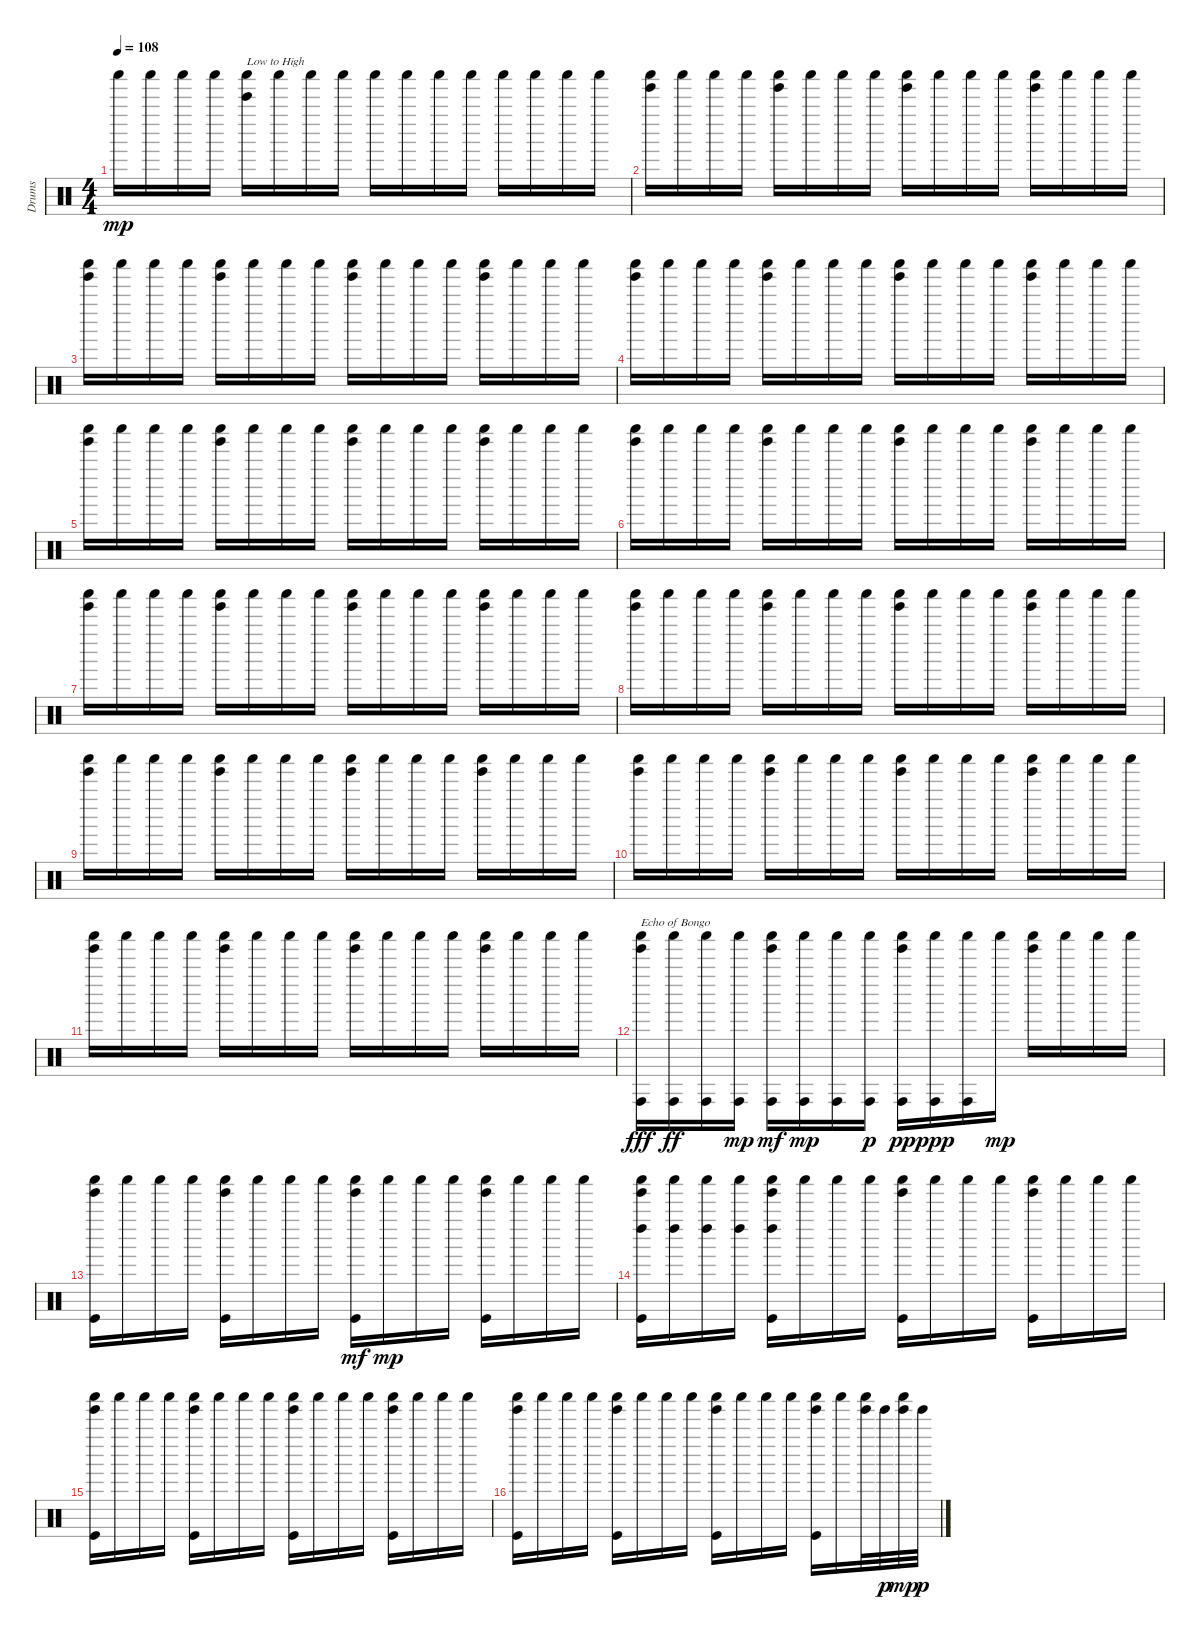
\track ("Drums" "Drums") {instrument percussion}
\staff {score}
\articulation defaults
\ts (4 4)
\tempo 108
\clef neutral
\ks c "Shaker (hit)".16{dy mp volume 1} "Shaker (hit)".16{volume 13} "Shaker (hit)".16 "Shaker (hit)".16
("Bell Tree (hit)" "Shaker (hit)").16{txt "Low to High"} "Shaker (hit)".16 "Shaker (hit)".16 "Shaker (hit)".16 "Shaker (hit)".16 "Shaker (hit)".16 "Shaker (hit)".16 "Shaker (hit)".16 "Shaker (hit)".16 "Shaker (hit)".16 "Shaker (hit)".16 "Shaker (hit)".16 |
("Tinkle Bell (hit)" "Shaker (hit)").16 "Shaker (hit)".16 "Shaker (hit)".16 "Shaker (hit)".16 ("Tinkle Bell (hit)" "Shaker (hit)").16 "Shaker (hit)".16 "Shaker (hit)".16 "Shaker (hit)".16 ("Tinkle Bell (hit)" "Shaker (hit)").16 "Shaker (hit)".16 "Shaker (hit)".16 "Shaker (hit)".16 ("Tinkle Bell (hit)" "Shaker (hit)").16 "Shaker (hit)".16 "Shaker (hit)".16 "Shaker (hit)".16 |
("Tinkle Bell (hit)" "Shaker (hit)").16 "Shaker (hit)".16 "Shaker (hit)".16 "Shaker (hit)".16 ("Tinkle Bell (hit)" "Shaker (hit)").16 "Shaker (hit)".16 "Shaker (hit)".16 "Shaker (hit)".16 ("Tinkle Bell (hit)" "Shaker (hit)").16 "Shaker (hit)".16 "Shaker (hit)".16 "Shaker (hit)".16 ("Tinkle Bell (hit)" "Shaker (hit)").16 "Shaker (hit)".16 "Shaker (hit)".16 "Shaker (hit)".16 |
("Tinkle Bell (hit)" "Shaker (hit)").16 "Shaker (hit)".16 "Shaker (hit)".16 "Shaker (hit)".16 ("Tinkle Bell (hit)" "Shaker (hit)").16 "Shaker (hit)".16 "Shaker (hit)".16 "Shaker (hit)".16 ("Tinkle Bell (hit)" "Shaker (hit)").16 "Shaker (hit)".16 "Shaker (hit)".16 "Shaker (hit)".16 ("Tinkle Bell (hit)" "Shaker (hit)").16 "Shaker (hit)".16 "Shaker (hit)".16 "Shaker (hit)".16 |
("Tinkle Bell (hit)" "Shaker (hit)").16 "Shaker (hit)".16 "Shaker (hit)".16 "Shaker (hit)".16 ("Tinkle Bell (hit)" "Shaker (hit)").16 "Shaker (hit)".16 "Shaker (hit)".16 "Shaker (hit)".16 ("Tinkle Bell (hit)" "Shaker (hit)").16 "Shaker (hit)".16 "Shaker (hit)".16 "Shaker (hit)".16 ("Tinkle Bell (hit)" "Shaker (hit)").16 "Shaker (hit)".16 "Shaker (hit)".16 "Shaker (hit)".16 |
("Tinkle Bell (hit)" "Shaker (hit)").16 "Shaker (hit)".16 "Shaker (hit)".16 "Shaker (hit)".16 ("Tinkle Bell (hit)" "Shaker (hit)").16 "Shaker (hit)".16 "Shaker (hit)".16 "Shaker (hit)".16 ("Tinkle Bell (hit)" "Shaker (hit)").16 "Shaker (hit)".16 "Shaker (hit)".16 "Shaker (hit)".16 ("Tinkle Bell (hit)" "Shaker (hit)").16 "Shaker (hit)".16 "Shaker (hit)".16 "Shaker (hit)".16 |
("Tinkle Bell (hit)" "Shaker (hit)").16 "Shaker (hit)".16 "Shaker (hit)".16 "Shaker (hit)".16 ("Tinkle Bell (hit)" "Shaker (hit)").16 "Shaker (hit)".16 "Shaker (hit)".16 "Shaker (hit)".16 ("Tinkle Bell (hit)" "Shaker (hit)").16 "Shaker (hit)".16 "Shaker (hit)".16 "Shaker (hit)".16 ("Tinkle Bell (hit)" "Shaker (hit)").16 "Shaker (hit)".16 "Shaker (hit)".16 "Shaker (hit)".16 |
("Tinkle Bell (hit)" "Shaker (hit)").16 "Shaker (hit)".16 "Shaker (hit)".16 "Shaker (hit)".16 ("Tinkle Bell (hit)" "Shaker (hit)").16 "Shaker (hit)".16 "Shaker (hit)".16 "Shaker (hit)".16 ("Tinkle Bell (hit)" "Shaker (hit)").16 "Shaker (hit)".16 "Shaker (hit)".16 "Shaker (hit)".16 ("Tinkle Bell (hit)" "Shaker (hit)").16 "Shaker (hit)".16 "Shaker (hit)".16 "Shaker (hit)".16 |
("Tinkle Bell (hit)" "Shaker (hit)").16 "Shaker (hit)".16 "Shaker (hit)".16 "Shaker (hit)".16 ("Tinkle Bell (hit)" "Shaker (hit)").16 "Shaker (hit)".16 "Shaker (hit)".16 "Shaker (hit)".16 ("Tinkle Bell (hit)" "Shaker (hit)").16 "Shaker (hit)".16 "Shaker (hit)".16 "Shaker (hit)".16 ("Tinkle Bell (hit)" "Shaker (hit)").16 "Shaker (hit)".16 "Shaker (hit)".16 "Shaker (hit)".16 |
("Tinkle Bell (hit)" "Shaker (hit)").16 "Shaker (hit)".16 "Shaker (hit)".16 "Shaker (hit)".16 ("Tinkle Bell (hit)" "Shaker (hit)").16 "Shaker (hit)".16 "Shaker (hit)".16 "Shaker (hit)".16 ("Tinkle Bell (hit)" "Shaker (hit)").16 "Shaker (hit)".16 "Shaker (hit)".16 "Shaker (hit)".16 ("Tinkle Bell (hit)" "Shaker (hit)").16 "Shaker (hit)".16 "Shaker (hit)".16 "Shaker (hit)".16 |
("Tinkle Bell (hit)" "Shaker (hit)").16 "Shaker (hit)".16 "Shaker (hit)".16 "Shaker (hit)".16 ("Tinkle Bell (hit)" "Shaker (hit)").16 "Shaker (hit)".16 "Shaker (hit)".16 "Shaker (hit)".16 ("Tinkle Bell (hit)" "Shaker (hit)").16 "Shaker (hit)".16 "Shaker (hit)".16 "Shaker (hit)".16 ("Tinkle Bell (hit)" "Shaker (hit)").16 "Shaker (hit)".16 "Shaker (hit)".16 "Shaker (hit)".16 |
("Tinkle Bell (hit)" "Shaker (hit)" "Conga high (hit)").16{txt "Echo of Bongo" dy fff} ("Shaker (hit)" "Conga high (hit)").16{dy ff} ("Shaker (hit)" "Conga high (hit)").16 ("Shaker (hit)" "Conga high (hit)").16{dy mp} ("Tinkle Bell (hit)" "Shaker (hit)" "Conga high (hit)").16{dy mf} ("Shaker (hit)" "Conga high (hit)").16{dy mp} ("Shaker (hit)" "Conga high (hit)").16 ("Shaker (hit)" "Conga high (hit)").16{dy p} ("Tinkle Bell (hit)" "Shaker (hit)" "Conga high (hit)").16{dy pp} ("Shaker (hit)" "Conga high (hit)").16{dy ppp} ("Shaker (hit)" "Conga high (hit)").16 "Shaker (hit)".16{dy mp} ("Tinkle Bell (hit)" "Shaker (hit)").16 "Shaker (hit)".16 "Shaker (hit)".16 "Shaker (hit)".16 |
("Tinkle Bell (hit)" "Shaker (hit)" "Kick (hit)").16 "Shaker (hit)".16 "Shaker (hit)".16 "Shaker (hit)".16 ("Tinkle Bell (hit)" "Shaker (hit)" "Kick (hit)").16 "Shaker (hit)".16 "Shaker (hit)".16 "Shaker (hit)".16 ("Tinkle Bell (hit)" "Shaker (hit)" "Kick (hit)").16{dy mf} "Shaker (hit)".16{dy mp} "Shaker (hit)".16 "Shaker (hit)".16 ("Tinkle Bell (hit)" "Shaker (hit)" "Kick (hit)").16 "Shaker (hit)".16 "Shaker (hit)".16 "Shaker (hit)".16 |
("Tinkle Bell (hit)" "Left Maraca (hit)" "Shaker (hit)" "Kick (hit)").16 ("Left Maraca (hit)" "Shaker (hit)").16 ("Left Maraca (hit)" "Shaker (hit)").16 ("Left Maraca (hit)" "Shaker (hit)").16 ("Tinkle Bell (hit)" "Left Maraca (hit)" "Shaker (hit)" "Kick (hit)").16 "Shaker (hit)".16 "Shaker (hit)".16 "Shaker (hit)".16 ("Tinkle Bell (hit)" "Shaker (hit)" "Kick (hit)").16 "Shaker (hit)".16 "Shaker (hit)".16 "Shaker (hit)".16 ("Tinkle Bell (hit)" "Shaker (hit)" "Kick (hit)").16 "Shaker (hit)".16 "Shaker (hit)".16 "Shaker (hit)".16 |
("Tinkle Bell (hit)" "Shaker (hit)" "Kick (hit)").16 "Shaker (hit)".16 "Shaker (hit)".16 "Shaker (hit)".16 ("Tinkle Bell (hit)" "Shaker (hit)" "Kick (hit)").16 "Shaker (hit)".16 "Shaker (hit)".16 "Shaker (hit)".16 ("Tinkle Bell (hit)" "Shaker (hit)" "Kick (hit)").16 "Shaker (hit)".16 "Shaker (hit)".16 "Shaker (hit)".16 ("Tinkle Bell (hit)" "Shaker (hit)" "Kick (hit)").16 "Shaker (hit)".16 "Shaker (hit)".16 "Shaker (hit)".16 |
("Tinkle Bell (hit)" "Shaker (hit)" "Kick (hit)").16 "Shaker (hit)".16 "Shaker (hit)".16 "Shaker (hit)".16 ("Tinkle Bell (hit)" "Shaker (hit)" "Kick (hit)").16 "Shaker (hit)".16 "Shaker (hit)".16 "Shaker (hit)".16 ("Tinkle Bell (hit)" "Shaker (hit)" "Kick (hit)").16 "Shaker (hit)".16 "Shaker (hit)".16 "Shaker (hit)".16 ("Tinkle Bell (hit)" "Shaker (hit)" "Kick (hit)").16 "Shaker (hit)".16 ("Tinkle Bell (hit)" "Shaker (hit)").32 "Tinkle Bell (hit)".32{dy p} ("Tinkle Bell (hit)" "Shaker (hit)").32{dy mp} "Tinkle Bell (hit)".32{dy p}
